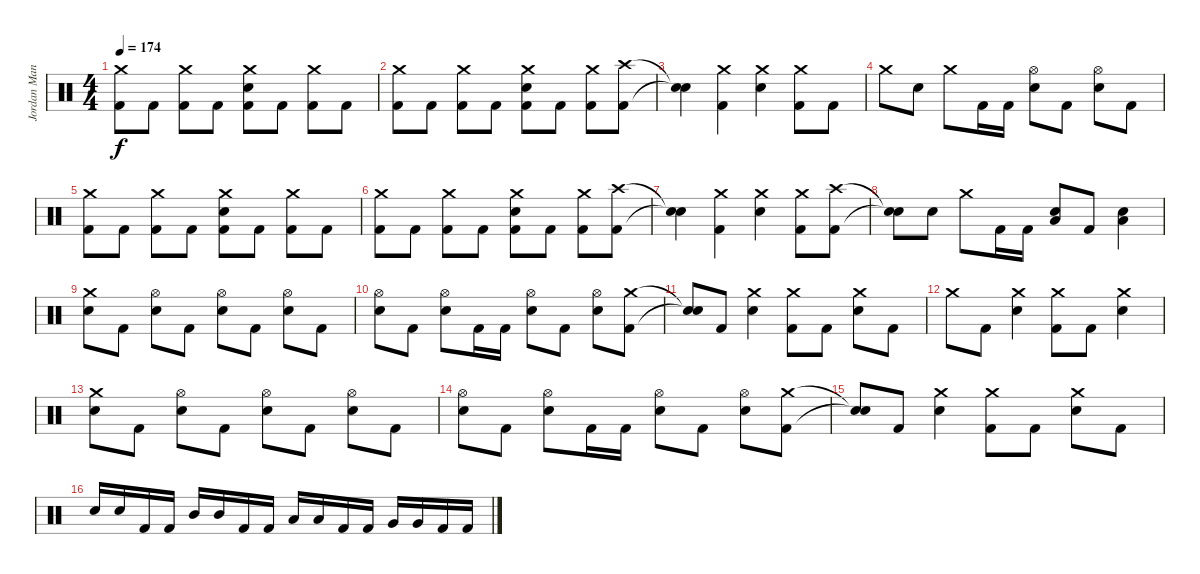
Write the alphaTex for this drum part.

\track ("Jordan Manchino (Drums)" "Jordan Man") {instrument percussion}
\staff {score}
\articulation defaults
\ts (4 4)
\tempo 174
\clef neutral
\ks c
("Crash medium (hit)" "Kick (hit) 2").8{dy f} "Kick (hit) 2".8 ("Crash medium (hit)" "Kick (hit) 2").8 "Kick (hit) 2".8 ("Snare (hit) 2" "Crash medium (hit)" "Kick (hit) 2").8 "Kick (hit) 2".8 ("Crash medium (hit)" "Kick (hit) 2").8 "Kick (hit) 2".8 |
("Crash medium (hit)" "Kick (hit) 2").8 "Kick (hit) 2".8 ("Crash medium (hit)" "Kick (hit) 2").8 "Kick (hit) 2".8 ("Snare (hit) 2" "Crash medium (hit)" "Kick (hit) 2").8 "Kick (hit) 2".8 ("Crash medium (hit)" "Kick (hit) 2").8 ("Crash high (hit)" "Kick (hit) 2").8 |
("Snare (hit)"{t} "Snare (hit)"{t}).4 ("Crash medium (hit)" "Kick (hit) 2").4 ("Crash medium (hit)" "Snare (hit) 2").4 ("Crash medium (hit)" "Kick (hit) 2").8 "Kick (hit) 2".8 |
"Crash medium (hit)".8 "Snare (hit) 2".8 "Crash medium (hit)".8 "Kick (hit) 2".16 "Kick (hit) 2".16 ("Hi-Hat (open)" "Snare (hit) 2").8 "Kick (hit) 2".8 ("Hi-Hat (open)" "Snare (hit) 2").8 "Kick (hit) 2".8 |
("Crash medium (hit)" "Kick (hit) 2").8 "Kick (hit) 2".8 ("Crash medium (hit)" "Kick (hit) 2").8 "Kick (hit) 2".8 ("Snare (hit) 2" "Crash medium (hit)" "Kick (hit) 2").8 "Kick (hit) 2".8 ("Crash medium (hit)" "Kick (hit) 2").8 "Kick (hit) 2".8 |
("Crash medium (hit)" "Kick (hit) 2").8 "Kick (hit) 2".8 ("Crash medium (hit)" "Kick (hit) 2").8 "Kick (hit) 2".8 ("Snare (hit) 2" "Crash medium (hit)" "Kick (hit) 2").8 "Kick (hit) 2".8 ("Crash medium (hit)" "Kick (hit) 2").8 ("Crash high (hit)" "Kick (hit) 2").8 |
("Snare (hit)"{t} "Snare (hit)"{t}).4 ("Crash medium (hit)" "Kick (hit) 2").4 ("Crash medium (hit)" "Snare (hit) 2").4 ("Crash medium (hit)" "Kick (hit) 2").8 ("Crash high (hit)" "Kick (hit) 2").8 |
("Snare (hit)"{t} "Snare (hit)"{t}).8 "Snare (hit) 2".8 "Crash medium (hit)".8 "Kick (hit) 2".16 "Kick (hit) 2".16 ("Low Floor Tom (hit)" "Snare (hit) 2").8 "Kick (hit) 2".8 ("Low Floor Tom (hit)" "Snare (hit) 2").4 |
("Crash medium (hit)" "Snare (hit) 2").8 "Kick (hit) 2".8 ("Hi-Hat (open)" "Snare (hit) 2").8 "Kick (hit) 2".8 ("Hi-Hat (open)" "Snare (hit) 2").8 "Kick (hit) 2".8 ("Hi-Hat (open)" "Snare (hit) 2").8 "Kick (hit) 2".8 |
("Hi-Hat (open)" "Snare (hit) 2").8 "Kick (hit) 2".8 ("Hi-Hat (open)" "Snare (hit) 2").8 "Kick (hit) 2".16 "Kick (hit) 2".16 ("Hi-Hat (open)" "Snare (hit) 2").8 "Kick (hit) 2".8 ("Hi-Hat (open)" "Snare (hit) 2").8 ("Crash medium (hit)" "Kick (hit) 2").8 |
("Snare (hit)"{t} "Snare (hit)"{t}).8 "Kick (hit) 2".8 ("Crash medium (hit)" "Snare (hit) 2").4 ("Crash medium (hit)" "Kick (hit) 2").8 "Kick (hit) 2".8 ("Crash medium (hit)" "Snare (hit) 2").8 "Kick (hit) 2".8 |
"Crash medium (hit)".8 "Kick (hit) 2".8 ("Crash medium (hit)" "Snare (hit) 2").4 ("Crash medium (hit)" "Kick (hit) 2").8 "Kick (hit) 2".8 ("Crash medium (hit)" "Snare (hit) 2").4 |
("Crash medium (hit)" "Snare (hit) 2").8 "Kick (hit) 2".8 ("Hi-Hat (open)" "Snare (hit) 2").8 "Kick (hit) 2".8 ("Hi-Hat (open)" "Snare (hit) 2").8 "Kick (hit) 2".8 ("Hi-Hat (open)" "Snare (hit) 2").8 "Kick (hit) 2".8 |
("Hi-Hat (open)" "Snare (hit) 2").8 "Kick (hit) 2".8 ("Hi-Hat (open)" "Snare (hit) 2").8 "Kick (hit) 2".16 "Kick (hit) 2".16 ("Hi-Hat (open)" "Snare (hit) 2").8 "Kick (hit) 2".8 ("Hi-Hat (open)" "Snare (hit) 2").8 ("Crash medium (hit)" "Kick (hit) 2").8 |
("Snare (hit)"{t} "Snare (hit)"{t}).8 "Kick (hit) 2".8 ("Crash medium (hit)" "Snare (hit) 2").4 ("Crash medium (hit)" "Kick (hit) 2").8 "Kick (hit) 2".8 ("Crash medium (hit)" "Snare (hit) 2").8 "Kick (hit) 2".8 |
"Snare (hit) 2".16 "Snare (hit) 2".16 "Kick (hit) 2".16 "Kick (hit) 2".16 "Mid Tom (hit)".16 "Mid Tom (hit)".16 "Kick (hit) 2".16 "Kick (hit) 2".16 "Low Tom (hit)".16 "Low Tom (hit)".16 "Kick (hit) 2".16 "Kick (hit) 2".16 "Very Low Tom (hit)".16 "Very Low Tom (hit)".16 "Kick (hit) 2".16 "Kick (hit) 2".16
